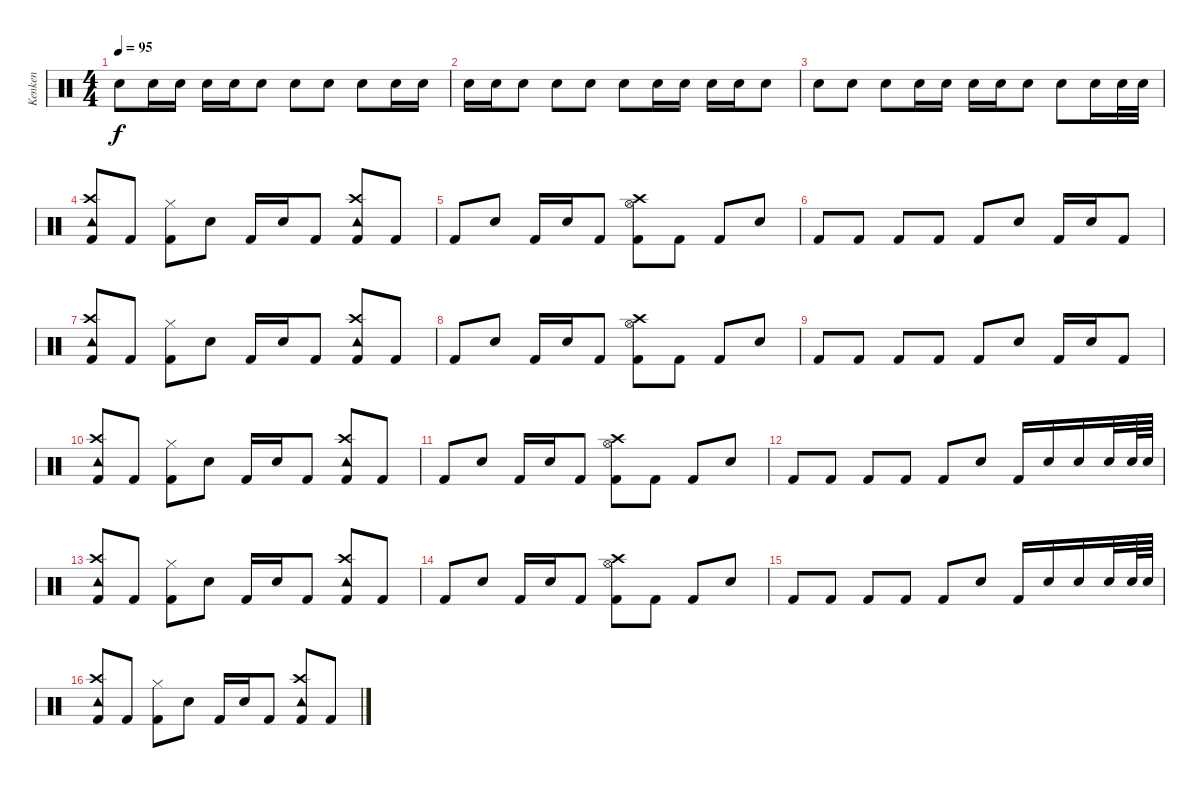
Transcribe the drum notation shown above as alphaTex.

\track ("Kenken" "Kenken") {instrument percussion}
\staff {score}
\articulation defaults
\ts (4 4)
\tempo 95
\clef neutral
\ks c "Snare (hit) 2".8{dy f} "Snare (hit) 2".16 "Snare (hit) 2".16 "Snare (hit) 2".16 "Snare (hit) 2".16 "Snare (hit) 2".8 "Snare (hit) 2".8 "Snare (hit) 2".8 "Snare (hit) 2".8 "Snare (hit) 2".16 "Snare (hit) 2".16
|
"Snare (hit) 2".16 "Snare (hit) 2".16 "Snare (hit) 2".8 "Snare (hit) 2".8 "Snare (hit) 2".8 "Snare (hit) 2".8 "Snare (hit) 2".16 "Snare (hit) 2".16 "Snare (hit) 2".16 "Snare (hit) 2".16 "Snare (hit) 2".8 |
"Snare (hit) 2".8 "Snare (hit) 2".8 "Snare (hit) 2".8 "Snare (hit) 2".16 "Snare (hit) 2".16 "Snare (hit) 2".16 "Snare (hit) 2".16 "Snare (hit) 2".8 "Electric Snare (hit)".8 "Electric Snare (hit)".16 "Electric Snare (hit)".32 "Electric Snare (hit)".32 |
("Tambourine (hit)" "Crash high (hit)" "Kick (hit) 2").8 "Kick (hit) 2".8 ("Hi-Hat (closed)" "Kick (hit) 2").8 "Electric Snare (hit)".8 "Kick (hit) 2".16 "Electric Snare (hit)".16 "Kick (hit) 2".8 ("Tambourine (hit)" "Crash high (hit)" "Kick (hit) 2").8 "Kick (hit) 2".8 |
"Kick (hit) 2".8 "Electric Snare (hit)".8 "Kick (hit) 2".16 "Electric Snare (hit)".16 "Kick (hit) 2".8 ("Hi-Hat (open)" "Crash high (hit)" "Kick (hit) 2").8 "Kick (hit) 2".8 "Kick (hit) 2".8 "Electric Snare (hit)".8 |
"Kick (hit) 2".8 "Kick (hit) 2".8 "Kick (hit) 2".8 "Kick (hit) 2".8 "Kick (hit) 2".8 "Electric Snare (hit)".8 "Kick (hit) 2".16 "Electric Snare (hit)".16 "Kick (hit) 2".8 |
("Tambourine (hit)" "Crash high (hit)" "Kick (hit) 2").8 "Kick (hit) 2".8 ("Hi-Hat (closed)" "Kick (hit) 2").8 "Electric Snare (hit)".8 "Kick (hit) 2".16 "Electric Snare (hit)".16 "Kick (hit) 2".8 ("Tambourine (hit)" "Crash high (hit)" "Kick (hit) 2").8 "Kick (hit) 2".8 |
"Kick (hit) 2".8 "Electric Snare (hit)".8 "Kick (hit) 2".16 "Electric Snare (hit)".16 "Kick (hit) 2".8 ("Hi-Hat (open)" "Crash high (hit)" "Kick (hit) 2").8 "Kick (hit) 2".8 "Kick (hit) 2".8 "Electric Snare (hit)".8 |
"Kick (hit) 2".8 "Kick (hit) 2".8 "Kick (hit) 2".8 "Kick (hit) 2".8 "Kick (hit) 2".8 "Electric Snare (hit)".8 "Kick (hit) 2".16 "Electric Snare (hit)".16 "Kick (hit) 2".8 |
("Tambourine (hit)" "Crash high (hit)" "Kick (hit) 2").8 "Kick (hit) 2".8 ("Hi-Hat (closed)" "Kick (hit) 2").8 "Electric Snare (hit)".8 "Kick (hit) 2".16 "Electric Snare (hit)".16 "Kick (hit) 2".8 ("Tambourine (hit)" "Crash high (hit)" "Kick (hit) 2").8 "Kick (hit) 2".8 |
"Kick (hit) 2".8 "Electric Snare (hit)".8 "Kick (hit) 2".16 "Electric Snare (hit)".16 "Kick (hit) 2".8 ("Hi-Hat (open)" "Crash high (hit)" "Kick (hit) 2").8 "Kick (hit) 2".8 "Kick (hit) 2".8 "Electric Snare (hit)".8 |
"Kick (hit) 2".8 "Kick (hit) 2".8 "Kick (hit) 2".8 "Kick (hit) 2".8 "Kick (hit) 2".8 "Electric Snare (hit)".8 "Kick (hit) 2".16 "Electric Snare (hit)".16 "Electric Snare (hit)".16 "Electric Snare (hit)".32 "Electric Snare (hit)".64 "Electric Snare (hit)".64 |
("Tambourine (hit)" "Crash high (hit)" "Kick (hit) 2").8{volume 8} "Kick (hit) 2".8 ("Hi-Hat (closed)" "Kick (hit) 2").8 "Electric Snare (hit)".8 "Kick (hit) 2".16 "Electric Snare (hit)".16 "Kick (hit) 2".8 ("Tambourine (hit)" "Crash high (hit)" "Kick (hit) 2").8 "Kick (hit) 2".8 |
"Kick (hit) 2".8 "Electric Snare (hit)".8 "Kick (hit) 2".16 "Electric Snare (hit)".16 "Kick (hit) 2".8 ("Hi-Hat (open)" "Crash high (hit)" "Kick (hit) 2").8 "Kick (hit) 2".8 "Kick (hit) 2".8 "Electric Snare (hit)".8 |
"Kick (hit) 2".8{volume 0} "Kick (hit) 2".8 "Kick (hit) 2".8 "Kick (hit) 2".8 "Kick (hit) 2".8 "Electric Snare (hit)".8 "Kick (hit) 2".16 "Electric Snare (hit)".16 "Electric Snare (hit)".16 "Electric Snare (hit)".32 "Electric Snare (hit)".64 "Electric Snare (hit)".64 |
("Tambourine (hit)" "Crash high (hit)" "Kick (hit) 2").8 "Kick (hit) 2".8 ("Hi-Hat (closed)" "Kick (hit) 2").8 "Electric Snare (hit)".8 "Kick (hit) 2".16 "Electric Snare (hit)".16 "Kick (hit) 2".8 ("Tambourine (hit)" "Crash high (hit)" "Kick (hit) 2").8 "Kick (hit) 2".8
